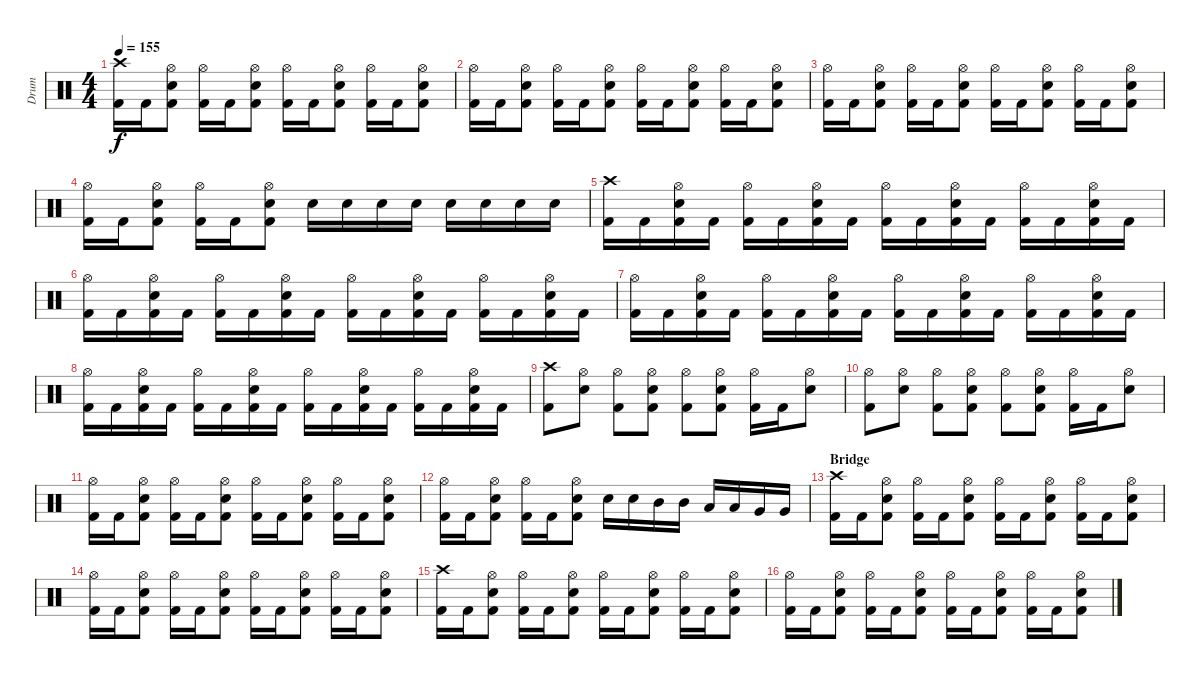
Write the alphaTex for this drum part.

\track ("Drum" "Drum") {instrument percussion}
\staff {score}
\articulation defaults
\ts (4 4)
\tempo 155
\clef neutral
\ks c
("Crash high (hit)" "Kick (hit) 2").16{dy f} "Kick (hit) 2".16 ("Hi-Hat (open)" "Electric Snare (hit)" "Kick (hit) 2").8 ("Hi-Hat (open)" "Kick (hit) 2").16 "Kick (hit) 2".16 ("Hi-Hat (open)" "Electric Snare (hit)" "Kick (hit) 2").8 ("Hi-Hat (open)" "Kick (hit) 2").16 "Kick (hit) 2".16 ("Hi-Hat (open)" "Electric Snare (hit)" "Kick (hit) 2").8 ("Hi-Hat (open)" "Kick (hit) 2").16 "Kick (hit) 2".16 ("Hi-Hat (open)" "Electric Snare (hit)" "Kick (hit) 2").8 |
("Hi-Hat (open)" "Kick (hit) 2").16 "Kick (hit) 2".16 ("Hi-Hat (open)" "Electric Snare (hit)" "Kick (hit) 2").8 ("Hi-Hat (open)" "Kick (hit) 2").16 "Kick (hit) 2".16 ("Hi-Hat (open)" "Electric Snare (hit)" "Kick (hit) 2").8 ("Hi-Hat (open)" "Kick (hit) 2").16 "Kick (hit) 2".16 ("Hi-Hat (open)" "Electric Snare (hit)" "Kick (hit) 2").8 ("Hi-Hat (open)" "Kick (hit) 2").16 "Kick (hit) 2".16 ("Hi-Hat (open)" "Electric Snare (hit)" "Kick (hit) 2").8 |
("Hi-Hat (open)" "Kick (hit) 2").16 "Kick (hit) 2".16 ("Hi-Hat (open)" "Electric Snare (hit)" "Kick (hit) 2").8 ("Hi-Hat (open)" "Kick (hit) 2").16 "Kick (hit) 2".16 ("Hi-Hat (open)" "Electric Snare (hit)" "Kick (hit) 2").8 ("Hi-Hat (open)" "Kick (hit) 2").16 "Kick (hit) 2".16 ("Hi-Hat (open)" "Electric Snare (hit)" "Kick (hit) 2").8 ("Hi-Hat (open)" "Kick (hit) 2").16 "Kick (hit) 2".16 ("Hi-Hat (open)" "Electric Snare (hit)" "Kick (hit) 2").8 |
("Hi-Hat (open)" "Kick (hit) 2").16 "Kick (hit) 2".16 ("Hi-Hat (open)" "Electric Snare (hit)" "Kick (hit) 2").8 ("Hi-Hat (open)" "Kick (hit) 2").16 "Kick (hit) 2".16 ("Hi-Hat (open)" "Electric Snare (hit)" "Kick (hit) 2").8 "Electric Snare (hit)".16 "Electric Snare (hit)".16 "Electric Snare (hit)".16 "Electric Snare (hit)".16 "Electric Snare (hit)".16 "Electric Snare (hit)".16 "Electric Snare (hit)".16 "Electric Snare (hit)".16 |
("Crash high (hit)" "Kick (hit) 2").16 "Kick (hit) 2".16 ("Hi-Hat (open)" "Electric Snare (hit)" "Kick (hit) 2").16 "Kick (hit) 2".16 ("Hi-Hat (open)" "Kick (hit) 2").16 "Kick (hit) 2".16 ("Hi-Hat (open)" "Electric Snare (hit)" "Kick (hit) 2").16 "Kick (hit) 2".16 ("Hi-Hat (open)" "Kick (hit) 2").16 "Kick (hit) 2".16 ("Hi-Hat (open)" "Electric Snare (hit)" "Kick (hit) 2").16 "Kick (hit) 2".16 ("Hi-Hat (open)" "Kick (hit) 2").16 "Kick (hit) 2".16 ("Hi-Hat (open)" "Electric Snare (hit)" "Kick (hit) 2").16 "Kick (hit) 2".16 |
("Hi-Hat (open)" "Kick (hit) 2").16 "Kick (hit) 2".16 ("Hi-Hat (open)" "Electric Snare (hit)" "Kick (hit) 2").16 "Kick (hit) 2".16 ("Hi-Hat (open)" "Kick (hit) 2").16 "Kick (hit) 2".16 ("Hi-Hat (open)" "Electric Snare (hit)" "Kick (hit) 2").16 "Kick (hit) 2".16 ("Hi-Hat (open)" "Kick (hit) 2").16 "Kick (hit) 2".16 ("Hi-Hat (open)" "Electric Snare (hit)" "Kick (hit) 2").16 "Kick (hit) 2".16 ("Hi-Hat (open)" "Kick (hit) 2").16 "Kick (hit) 2".16 ("Hi-Hat (open)" "Electric Snare (hit)" "Kick (hit) 2").16 "Kick (hit) 2".16 |
("Hi-Hat (open)" "Kick (hit) 2").16 "Kick (hit) 2".16 ("Hi-Hat (open)" "Electric Snare (hit)" "Kick (hit) 2").16 "Kick (hit) 2".16 ("Hi-Hat (open)" "Kick (hit) 2").16 "Kick (hit) 2".16 ("Hi-Hat (open)" "Electric Snare (hit)" "Kick (hit) 2").16 "Kick (hit) 2".16 ("Hi-Hat (open)" "Kick (hit) 2").16 "Kick (hit) 2".16 ("Hi-Hat (open)" "Electric Snare (hit)" "Kick (hit) 2").16 "Kick (hit) 2".16 ("Hi-Hat (open)" "Kick (hit) 2").16 "Kick (hit) 2".16 ("Hi-Hat (open)" "Electric Snare (hit)" "Kick (hit) 2").16 "Kick (hit) 2".16 |
("Hi-Hat (open)" "Kick (hit) 2").16 "Kick (hit) 2".16 ("Hi-Hat (open)" "Electric Snare (hit)" "Kick (hit) 2").16 "Kick (hit) 2".16 ("Hi-Hat (open)" "Kick (hit) 2").16 "Kick (hit) 2".16 ("Hi-Hat (open)" "Electric Snare (hit)" "Kick (hit) 2").16 "Kick (hit) 2".16 ("Hi-Hat (open)" "Kick (hit) 2").16 "Kick (hit) 2".16 ("Hi-Hat (open)" "Electric Snare (hit)" "Kick (hit) 2").16 "Kick (hit) 2".16 ("Hi-Hat (open)" "Kick (hit) 2").16 "Kick (hit) 2".16 ("Hi-Hat (open)" "Electric Snare (hit)" "Kick (hit) 2").16 "Kick (hit) 2".16 |
("Crash high (hit)" "Kick (hit) 2").8 ("Hi-Hat (open)" "Electric Snare (hit)").8 ("Hi-Hat (open)" "Kick (hit) 2").8 ("Hi-Hat (open)" "Electric Snare (hit)" "Kick (hit) 2").8 ("Hi-Hat (open)" "Kick (hit) 2").8 ("Hi-Hat (open)" "Electric Snare (hit)" "Kick (hit) 2").8 ("Hi-Hat (open)" "Kick (hit) 2").16 "Kick (hit) 2".16 ("Hi-Hat (open)" "Electric Snare (hit)").8 |
("Hi-Hat (open)" "Kick (hit) 2").8 ("Hi-Hat (open)" "Electric Snare (hit)").8 ("Hi-Hat (open)" "Kick (hit) 2").8 ("Hi-Hat (open)" "Electric Snare (hit)" "Kick (hit) 2").8 ("Hi-Hat (open)" "Kick (hit) 2").8 ("Hi-Hat (open)" "Electric Snare (hit)" "Kick (hit) 2").8 ("Hi-Hat (open)" "Kick (hit) 2").16 "Kick (hit) 2".16 ("Hi-Hat (open)" "Electric Snare (hit)").8 |
("Hi-Hat (open)" "Kick (hit) 2").16 "Kick (hit) 2".16 ("Hi-Hat (open)" "Electric Snare (hit)" "Kick (hit) 2").8 ("Hi-Hat (open)" "Kick (hit) 2").16 "Kick (hit) 2".16 ("Hi-Hat (open)" "Electric Snare (hit)" "Kick (hit) 2").8 ("Hi-Hat (open)" "Kick (hit) 2").16 "Kick (hit) 2".16 ("Hi-Hat (open)" "Electric Snare (hit)" "Kick (hit) 2").8 ("Hi-Hat (open)" "Kick (hit) 2").16 "Kick (hit) 2".16 ("Hi-Hat (open)" "Electric Snare (hit)" "Kick (hit) 2").8 |
("Hi-Hat (open)" "Kick (hit) 2").16 "Kick (hit) 2".16 ("Hi-Hat (open)" "Electric Snare (hit)" "Kick (hit) 2").8 ("Hi-Hat (open)" "Kick (hit) 2").16 "Kick (hit) 2".16 ("Hi-Hat (open)" "Electric Snare (hit)" "Kick (hit) 2").8 "Electric Snare (hit)".16 "Electric Snare (hit)".16 "Mid Tom (hit)".16 "Mid Tom (hit)".16 "Low Tom (hit)".16 "Low Tom (hit)".16 "Very Low Tom (hit)".16 "Very Low Tom (hit)".16 |
\section ("" "Bridge")
("Crash high (hit)" "Kick (hit) 2").16 "Kick (hit) 2".16 ("Hi-Hat (open)" "Electric Snare (hit)" "Kick (hit) 2").8 ("Hi-Hat (open)" "Kick (hit) 2").16 "Kick (hit) 2".16 ("Hi-Hat (open)" "Electric Snare (hit)" "Kick (hit) 2").8 ("Hi-Hat (open)" "Kick (hit) 2").16 "Kick (hit) 2".16 ("Hi-Hat (open)" "Electric Snare (hit)" "Kick (hit) 2").8 ("Hi-Hat (open)" "Kick (hit) 2").16 "Kick (hit) 2".16 ("Hi-Hat (open)" "Electric Snare (hit)" "Kick (hit) 2").8 |
("Hi-Hat (open)" "Kick (hit) 2").16 "Kick (hit) 2".16 ("Hi-Hat (open)" "Electric Snare (hit)" "Kick (hit) 2").8 ("Hi-Hat (open)" "Kick (hit) 2").16 "Kick (hit) 2".16 ("Hi-Hat (open)" "Electric Snare (hit)" "Kick (hit) 2").8 ("Hi-Hat (open)" "Kick (hit) 2").16 "Kick (hit) 2".16 ("Hi-Hat (open)" "Electric Snare (hit)" "Kick (hit) 2").8 ("Hi-Hat (open)" "Kick (hit) 2").16 "Kick (hit) 2".16 ("Hi-Hat (open)" "Electric Snare (hit)" "Kick (hit) 2").8 |
("Crash high (hit)" "Kick (hit) 2").16 "Kick (hit) 2".16 ("Hi-Hat (open)" "Electric Snare (hit)" "Kick (hit) 2").8 ("Hi-Hat (open)" "Kick (hit) 2").16 "Kick (hit) 2".16 ("Hi-Hat (open)" "Electric Snare (hit)" "Kick (hit) 2").8 ("Hi-Hat (open)" "Kick (hit) 2").16 "Kick (hit) 2".16 ("Hi-Hat (open)" "Electric Snare (hit)" "Kick (hit) 2").8 ("Hi-Hat (open)" "Kick (hit) 2").16 "Kick (hit) 2".16 ("Hi-Hat (open)" "Electric Snare (hit)" "Kick (hit) 2").8 |
("Hi-Hat (open)" "Kick (hit) 2").16 "Kick (hit) 2".16 ("Hi-Hat (open)" "Electric Snare (hit)" "Kick (hit) 2").8 ("Hi-Hat (open)" "Kick (hit) 2").16 "Kick (hit) 2".16 ("Hi-Hat (open)" "Electric Snare (hit)" "Kick (hit) 2").8 ("Hi-Hat (open)" "Kick (hit) 2").16 "Kick (hit) 2".16 ("Hi-Hat (open)" "Electric Snare (hit)" "Kick (hit) 2").8 ("Hi-Hat (open)" "Kick (hit) 2").16 "Kick (hit) 2".16 ("Hi-Hat (open)" "Electric Snare (hit)" "Kick (hit) 2").8
